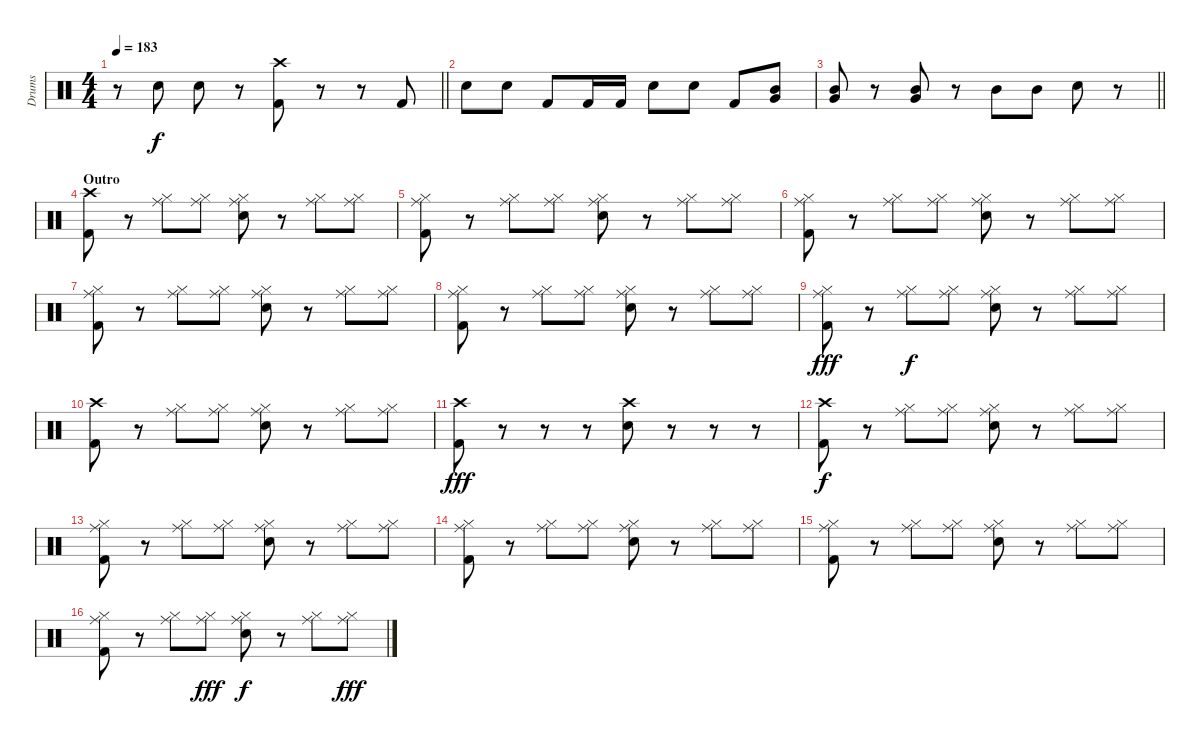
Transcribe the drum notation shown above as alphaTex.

\track ("Drums" "Drums") {instrument percussion}
\staff {score}
\articulation defaults
\ts (4 4)
\tempo 183
\clef neutral
\barLineRight lightlight
\ks c
r.8{dy f} "Snare (hit) 2".8 "Snare (hit) 2".8 r.8 ("Crash high (hit)" "Kick (hit) 2").8 r.8 r.8 "Kick (hit) 2".8 |
"Snare (hit) 2".8 "Snare (hit) 2".8 "Kick (hit) 2".8 "Kick (hit) 2".16 "Kick (hit) 2".16 "Snare (hit) 2".8 "Snare (hit) 2".8 "Kick (hit) 2".8 ("Very Low Tom (hit)" "Mid Tom (hit)").8 |
\barLineRight lightlight
("Very Low Tom (hit)" "Mid Tom (hit)").8 r.8 ("Very Low Tom (hit)" "Mid Tom (hit)").8 r.8 "Mid Tom (hit)".8 "Mid Tom (hit)".8 "Snare (hit) 2".8 r.8 |
\section ("" "Outro")
("Crash high (hit)" "Kick (hit) 2").8 r.8 ("Ride (middle)" "Hi-Hat (closed)").8 ("Ride (middle)" "Hi-Hat (closed)").8 ("Ride (middle)" "Hi-Hat (closed)" "Snare (hit) 2").8 r.8 ("Ride (middle)" "Hi-Hat (closed)").8 ("Ride (middle)" "Hi-Hat (closed)").8 |
("Ride (middle)" "Hi-Hat (closed)" "Kick (hit) 2").8 r.8 ("Ride (middle)" "Hi-Hat (closed)").8 ("Ride (middle)" "Hi-Hat (closed)").8 ("Ride (middle)" "Hi-Hat (closed)" "Snare (hit) 2").8 r.8 ("Ride (middle)" "Hi-Hat (closed)").8 ("Ride (middle)" "Hi-Hat (closed)").8 |
("Ride (middle)" "Hi-Hat (closed)" "Kick (hit) 2").8 r.8 ("Ride (middle)" "Hi-Hat (closed)").8 ("Ride (middle)" "Hi-Hat (closed)").8 ("Ride (middle)" "Hi-Hat (closed)" "Snare (hit) 2").8 r.8 ("Ride (middle)" "Hi-Hat (closed)").8 ("Ride (middle)" "Hi-Hat (closed)").8 |
("Ride (middle)" "Hi-Hat (closed)" "Kick (hit) 2").8 r.8 ("Ride (middle)" "Hi-Hat (closed)").8 ("Ride (middle)" "Hi-Hat (closed)").8 ("Ride (middle)" "Hi-Hat (closed)" "Snare (hit) 2").8 r.8 ("Ride (middle)" "Hi-Hat (closed)").8 ("Ride (middle)" "Hi-Hat (closed)").8 |
("Ride (middle)" "Hi-Hat (closed)" "Kick (hit) 2").8 r.8 ("Ride (middle)" "Hi-Hat (closed)").8 ("Ride (middle)" "Hi-Hat (closed)").8 ("Ride (middle)" "Hi-Hat (closed)" "Snare (hit) 2").8 r.8 ("Ride (middle)" "Hi-Hat (closed)").8 ("Ride (middle)" "Hi-Hat (closed)").8 |
("Ride (middle)" "Hi-Hat (closed)" "Kick (hit) 2").8{dy fff} r.8 ("Ride (middle)" "Hi-Hat (closed)").8{dy f} ("Ride (middle)" "Hi-Hat (closed)").8 ("Ride (middle)" "Hi-Hat (closed)" "Snare (hit) 2").8 r.8 ("Ride (middle)" "Hi-Hat (closed)").8 ("Ride (middle)" "Hi-Hat (closed)").8 |
("Crash high (hit)" "Kick (hit) 2").8 r.8 ("Ride (middle)" "Hi-Hat (closed)").8 ("Ride (middle)" "Hi-Hat (closed)").8 ("Ride (middle)" "Hi-Hat (closed)" "Snare (hit) 2").8 r.8 ("Ride (middle)" "Hi-Hat (closed)").8 ("Ride (middle)" "Hi-Hat (closed)").8 |
("Crash high (hit)" "Kick (hit) 2").8{dy fff} r.8 r.8 r.8 ("Crash high (hit)" "Snare (hit) 2").8 r.8 r.8 r.8 |
("Crash high (hit)" "Kick (hit) 2").8{dy f} r.8 ("Ride (middle)" "Hi-Hat (closed)").8 ("Ride (middle)" "Hi-Hat (closed)").8 ("Ride (middle)" "Hi-Hat (closed)" "Snare (hit) 2").8 r.8 ("Ride (middle)" "Hi-Hat (closed)").8 ("Ride (middle)" "Hi-Hat (closed)").8 |
("Ride (middle)" "Hi-Hat (closed)" "Kick (hit) 2").8 r.8 ("Ride (middle)" "Hi-Hat (closed)").8 ("Ride (middle)" "Hi-Hat (closed)").8 ("Ride (middle)" "Hi-Hat (closed)" "Snare (hit) 2").8 r.8 ("Ride (middle)" "Hi-Hat (closed)").8 ("Ride (middle)" "Hi-Hat (closed)").8 |
("Ride (middle)" "Hi-Hat (closed)" "Kick (hit) 2").8 r.8 ("Ride (middle)" "Hi-Hat (closed)").8 ("Ride (middle)" "Hi-Hat (closed)").8 ("Ride (middle)" "Hi-Hat (closed)" "Snare (hit) 2").8 r.8 ("Ride (middle)" "Hi-Hat (closed)").8 ("Ride (middle)" "Hi-Hat (closed)").8 |
("Ride (middle)" "Hi-Hat (closed)" "Kick (hit) 2").8 r.8 ("Ride (middle)" "Hi-Hat (closed)").8 ("Ride (middle)" "Hi-Hat (closed)").8 ("Ride (middle)" "Hi-Hat (closed)" "Snare (hit) 2").8 r.8 ("Ride (middle)" "Hi-Hat (closed)").8 ("Ride (middle)" "Hi-Hat (closed)").8 |
("Ride (middle)" "Hi-Hat (closed)" "Kick (hit) 2").8 r.8 ("Ride (middle)" "Hi-Hat (closed)").8 ("Ride (middle)" "Hi-Hat (closed)").8{dy fff} ("Ride (middle)" "Hi-Hat (closed)" "Snare (hit) 2").8{dy f} r.8 ("Ride (middle)" "Hi-Hat (closed)").8 ("Ride (middle)" "Hi-Hat (closed)").8{dy fff}
